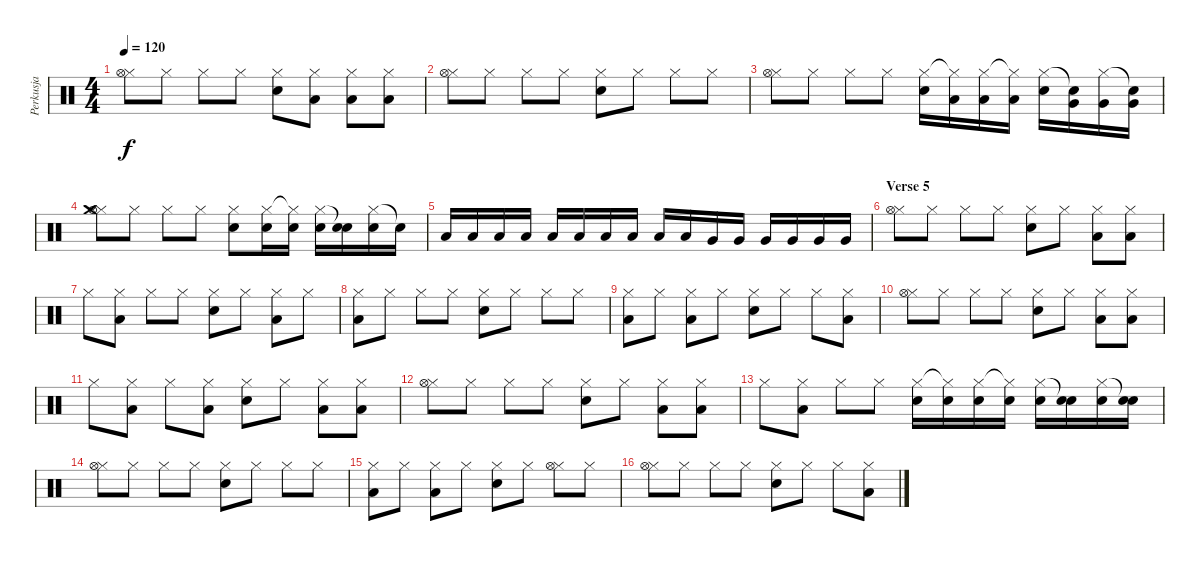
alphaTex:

\track ("Perkusja" "Perkusja") {instrument percussion}
\staff {score}
\articulation defaults
\ts (4 4)
\tempo 120
\clef neutral
\ks c
("Hi-Hat (closed)" "Hi-Hat (open)").8{dy f} "Hi-Hat (closed)".8 "Hi-Hat (closed)".8 "Hi-Hat (closed)".8 ("Hi-Hat (closed)" "Snare (hit) 2").8 ("Hi-Hat (closed)" "Low Floor Tom (hit)").8 ("Hi-Hat (closed)" "Low Floor Tom (hit)").8 ("Hi-Hat (closed)" "Low Floor Tom (hit)").8 |
("Hi-Hat (closed)" "Hi-Hat (open)").8 "Hi-Hat (closed)".8 "Hi-Hat (closed)".8 "Hi-Hat (closed)".8 ("Hi-Hat (closed)" "Snare (hit) 2").8 "Hi-Hat (closed)".8 "Hi-Hat (closed)".8 "Hi-Hat (closed)".8 |
("Hi-Hat (closed)" "Hi-Hat (open)").8 "Hi-Hat (closed)".8 "Hi-Hat (closed)".8 "Hi-Hat (closed)".8 ("Hi-Hat (closed)" "Snare (hit) 2").16 ("Hi-Hat (closed)"{t} "Low Floor Tom (hit)").16 ("Hi-Hat (closed)" "Low Floor Tom (hit)").16 ("Hi-Hat (closed)"{t} "Low Floor Tom (hit)").16 ("Hi-Hat (closed)" "Snare (hit) 2").16 ("Snare (hit)"{t} "Very Low Tom (hit)").16 ("Hi-Hat (closed)" "Very Low Tom (hit)").16 ("Snare (hit)"{t} "Very Low Tom (hit)").16 |
("Hi-Hat (closed)" "Hi-Hat (open)" "Crash medium (hit)").8 "Hi-Hat (closed)".8 "Hi-Hat (closed)".8 "Hi-Hat (closed)".8 ("Hi-Hat (closed)" "Snare (hit) 2").8 ("Hi-Hat (closed)" "Snare (hit) 2").16 ("Hi-Hat (closed)"{t} "Snare (hit) 2").16 ("Hi-Hat (closed)" "Snare (hit) 2").16 ("Snare (hit)"{t} "Snare (hit) 2").16 ("Hi-Hat (closed)" "Snare (hit) 2").16 "Snare (hit)"{t}.16 |
"Low Floor Tom (hit)".16 "Low Floor Tom (hit)".16 "Low Floor Tom (hit)".16 "Low Floor Tom (hit)".16 "Low Floor Tom (hit)".16 "Low Floor Tom (hit)".16 "Low Floor Tom (hit)".16 "Low Floor Tom (hit)".16 "Low Floor Tom (hit)".16 "Low Floor Tom (hit)".16 "Very Low Tom (hit)".16 "Very Low Tom (hit)".16 "Very Low Tom (hit)".16 "Very Low Tom (hit)".16 "Very Low Tom (hit)".16 "Very Low Tom (hit)".16 |
\section ("" "Verse 5")
("Hi-Hat (closed)" "Hi-Hat (open)").8 "Hi-Hat (closed)".8 "Hi-Hat (closed)".8 "Hi-Hat (closed)".8 ("Hi-Hat (closed)" "Snare (hit) 2").8 "Hi-Hat (closed)".8 ("Hi-Hat (closed)" "Low Floor Tom (hit)").8 ("Hi-Hat (closed)" "Low Floor Tom (hit)").8 |
"Hi-Hat (closed)".8 ("Hi-Hat (closed)" "Low Floor Tom (hit)").8 "Hi-Hat (closed)".8 "Hi-Hat (closed)".8 ("Hi-Hat (closed)" "Snare (hit) 2").8 "Hi-Hat (closed)".8 ("Hi-Hat (closed)" "Low Floor Tom (hit)").8 "Hi-Hat (closed)".8 |
("Hi-Hat (closed)" "Low Floor Tom (hit)").8 "Hi-Hat (closed)".8 "Hi-Hat (closed)".8 "Hi-Hat (closed)".8 ("Hi-Hat (closed)" "Snare (hit) 2").8 "Hi-Hat (closed)".8 "Hi-Hat (closed)".8 "Hi-Hat (closed)".8 |
("Hi-Hat (closed)" "Low Floor Tom (hit)").8 "Hi-Hat (closed)".8 ("Hi-Hat (closed)" "Low Floor Tom (hit)").8 "Hi-Hat (closed)".8 ("Hi-Hat (closed)" "Snare (hit) 2").8 "Hi-Hat (closed)".8 "Hi-Hat (closed)".8 ("Hi-Hat (closed)" "Low Floor Tom (hit)").8 |
("Hi-Hat (closed)" "Hi-Hat (open)").8 "Hi-Hat (closed)".8 "Hi-Hat (closed)".8 "Hi-Hat (closed)".8 ("Hi-Hat (closed)" "Snare (hit) 2").8 "Hi-Hat (closed)".8 ("Hi-Hat (closed)" "Low Floor Tom (hit)").8 ("Hi-Hat (closed)" "Low Floor Tom (hit)").8 |
"Hi-Hat (closed)".8 ("Hi-Hat (closed)" "Low Floor Tom (hit)").8 "Hi-Hat (closed)".8 ("Hi-Hat (closed)" "Low Floor Tom (hit)").8 ("Hi-Hat (closed)" "Snare (hit) 2").8 "Hi-Hat (closed)".8 ("Hi-Hat (closed)" "Low Floor Tom (hit)").8 ("Hi-Hat (closed)" "Low Floor Tom (hit)").8 |
("Hi-Hat (closed)" "Hi-Hat (open)").8 "Hi-Hat (closed)".8 "Hi-Hat (closed)".8 "Hi-Hat (closed)".8 ("Hi-Hat (closed)" "Snare (hit) 2").8 "Hi-Hat (closed)".8 ("Hi-Hat (closed)" "Low Floor Tom (hit)").8 ("Hi-Hat (closed)" "Low Floor Tom (hit)").8 |
"Hi-Hat (closed)".8 ("Hi-Hat (closed)" "Low Floor Tom (hit)").8 "Hi-Hat (closed)".8 "Hi-Hat (closed)".8 ("Hi-Hat (closed)" "Snare (hit) 2").16 ("Hi-Hat (closed)"{t} "Snare (hit) 2").16 ("Hi-Hat (closed)" "Snare (hit) 2").16 ("Hi-Hat (closed)"{t} "Snare (hit) 2").16 ("Hi-Hat (closed)" "Snare (hit) 2").16 ("Snare (hit)"{t} "Snare (hit) 2").16 ("Hi-Hat (closed)" "Snare (hit) 2").16 ("Snare (hit)"{t} "Snare (hit) 2").16 |
("Hi-Hat (closed)" "Hi-Hat (open)").8 "Hi-Hat (closed)".8 "Hi-Hat (closed)".8 "Hi-Hat (closed)".8 ("Hi-Hat (closed)" "Snare (hit) 2").8 "Hi-Hat (closed)".8 "Hi-Hat (closed)".8 "Hi-Hat (closed)".8 |
("Hi-Hat (closed)" "Low Floor Tom (hit)").8 "Hi-Hat (closed)".8 ("Hi-Hat (closed)" "Low Floor Tom (hit)").8 "Hi-Hat (closed)".8 ("Hi-Hat (closed)" "Snare (hit) 2").8 "Hi-Hat (closed)".8 ("Hi-Hat (closed)" "Hi-Hat (open)").8 "Hi-Hat (closed)".8 |
("Hi-Hat (closed)" "Hi-Hat (open)").8 "Hi-Hat (closed)".8 "Hi-Hat (closed)".8 "Hi-Hat (closed)".8 ("Hi-Hat (closed)" "Snare (hit) 2").8 "Hi-Hat (closed)".8 "Hi-Hat (closed)".8 ("Hi-Hat (closed)" "Low Floor Tom (hit)").8
